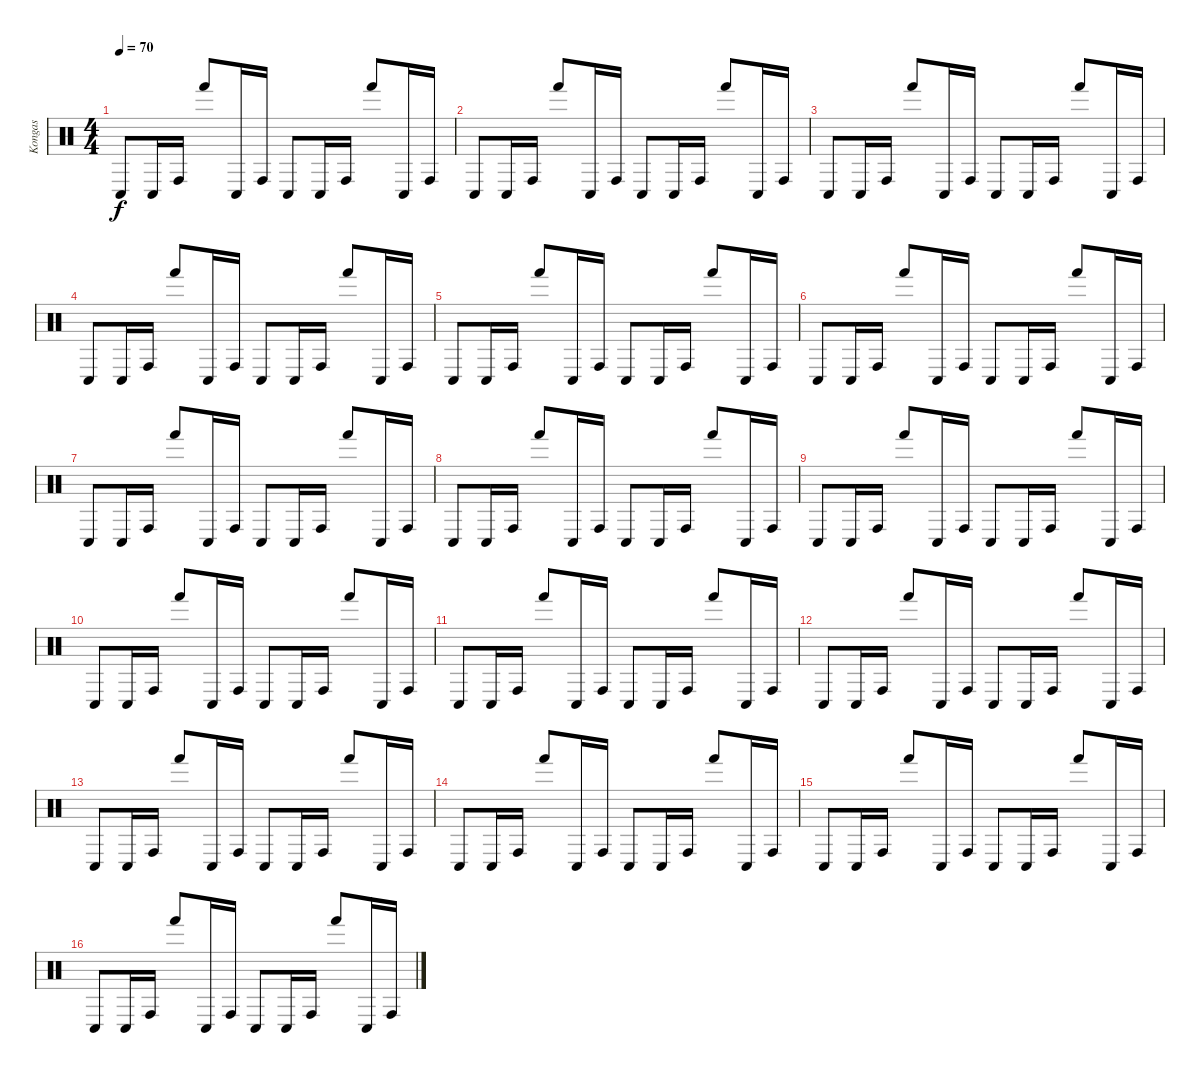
\track ("Kongas" "Kongas") {instrument percussion}
\staff {score}
\articulation defaults
\ts (4 4)
\tempo 70
\clef neutral
\ks c "Conga low (hit)".8{dy f} "Conga low (hit)".16 "Conga high (hit)".16 "Hand (hit)".8 "Conga low (hit)".16 "Conga high (hit)".16 "Conga low (hit)".8 "Conga low (hit)".16 "Conga high (hit)".16 "Hand (hit)".8 "Conga low (hit)".16 "Conga high (hit)".16
|
"Conga low (hit)".8 "Conga low (hit)".16 "Conga high (hit)".16 "Hand (hit)".8 "Conga low (hit)".16 "Conga high (hit)".16 "Conga low (hit)".8 "Conga low (hit)".16 "Conga high (hit)".16 "Hand (hit)".8 "Conga low (hit)".16 "Conga high (hit)".16 |
"Conga low (hit)".8 "Conga low (hit)".16 "Conga high (hit)".16 "Hand (hit)".8 "Conga low (hit)".16 "Conga high (hit)".16 "Conga low (hit)".8 "Conga low (hit)".16 "Conga high (hit)".16 "Hand (hit)".8 "Conga low (hit)".16 "Conga high (hit)".16 |
"Conga low (hit)".8 "Conga low (hit)".16 "Conga high (hit)".16 "Hand (hit)".8 "Conga low (hit)".16 "Conga high (hit)".16 "Conga low (hit)".8 "Conga low (hit)".16 "Conga high (hit)".16 "Hand (hit)".8 "Conga low (hit)".16 "Conga high (hit)".16 |
"Conga low (hit)".8 "Conga low (hit)".16 "Conga high (hit)".16 "Hand (hit)".8 "Conga low (hit)".16 "Conga high (hit)".16 "Conga low (hit)".8 "Conga low (hit)".16 "Conga high (hit)".16 "Hand (hit)".8 "Conga low (hit)".16 "Conga high (hit)".16 |
"Conga low (hit)".8 "Conga low (hit)".16 "Conga high (hit)".16 "Hand (hit)".8 "Conga low (hit)".16 "Conga high (hit)".16 "Conga low (hit)".8 "Conga low (hit)".16 "Conga high (hit)".16 "Hand (hit)".8 "Conga low (hit)".16 "Conga high (hit)".16 |
"Conga low (hit)".8 "Conga low (hit)".16 "Conga high (hit)".16 "Hand (hit)".8 "Conga low (hit)".16 "Conga high (hit)".16 "Conga low (hit)".8 "Conga low (hit)".16 "Conga high (hit)".16 "Hand (hit)".8 "Conga low (hit)".16 "Conga high (hit)".16 |
"Conga low (hit)".8 "Conga low (hit)".16 "Conga high (hit)".16 "Hand (hit)".8 "Conga low (hit)".16 "Conga high (hit)".16 "Conga low (hit)".8 "Conga low (hit)".16 "Conga high (hit)".16 "Hand (hit)".8 "Conga low (hit)".16 "Conga high (hit)".16 |
"Conga low (hit)".8 "Conga low (hit)".16 "Conga high (hit)".16 "Hand (hit)".8 "Conga low (hit)".16 "Conga high (hit)".16 "Conga low (hit)".8 "Conga low (hit)".16 "Conga high (hit)".16 "Hand (hit)".8 "Conga low (hit)".16 "Conga high (hit)".16 |
"Conga low (hit)".8 "Conga low (hit)".16 "Conga high (hit)".16 "Hand (hit)".8 "Conga low (hit)".16 "Conga high (hit)".16 "Conga low (hit)".8 "Conga low (hit)".16 "Conga high (hit)".16 "Hand (hit)".8 "Conga low (hit)".16 "Conga high (hit)".16 |
"Conga low (hit)".8 "Conga low (hit)".16 "Conga high (hit)".16 "Hand (hit)".8 "Conga low (hit)".16 "Conga high (hit)".16 "Conga low (hit)".8 "Conga low (hit)".16 "Conga high (hit)".16 "Hand (hit)".8 "Conga low (hit)".16 "Conga high (hit)".16 |
"Conga low (hit)".8 "Conga low (hit)".16 "Conga high (hit)".16 "Hand (hit)".8 "Conga low (hit)".16 "Conga high (hit)".16 "Conga low (hit)".8 "Conga low (hit)".16 "Conga high (hit)".16 "Hand (hit)".8 "Conga low (hit)".16 "Conga high (hit)".16 |
"Conga low (hit)".8 "Conga low (hit)".16 "Conga high (hit)".16 "Hand (hit)".8 "Conga low (hit)".16 "Conga high (hit)".16 "Conga low (hit)".8 "Conga low (hit)".16 "Conga high (hit)".16 "Hand (hit)".8 "Conga low (hit)".16 "Conga high (hit)".16 |
"Conga low (hit)".8 "Conga low (hit)".16 "Conga high (hit)".16 "Hand (hit)".8 "Conga low (hit)".16 "Conga high (hit)".16 "Conga low (hit)".8 "Conga low (hit)".16 "Conga high (hit)".16 "Hand (hit)".8 "Conga low (hit)".16 "Conga high (hit)".16 |
"Conga low (hit)".8 "Conga low (hit)".16 "Conga high (hit)".16 "Hand (hit)".8 "Conga low (hit)".16 "Conga high (hit)".16 "Conga low (hit)".8 "Conga low (hit)".16 "Conga high (hit)".16 "Hand (hit)".8 "Conga low (hit)".16 "Conga high (hit)".16 |
"Conga low (hit)".8 "Conga low (hit)".16 "Conga high (hit)".16 "Hand (hit)".8 "Conga low (hit)".16 "Conga high (hit)".16 "Conga low (hit)".8 "Conga low (hit)".16 "Conga high (hit)".16 "Hand (hit)".8 "Conga low (hit)".16 "Conga high (hit)".16
